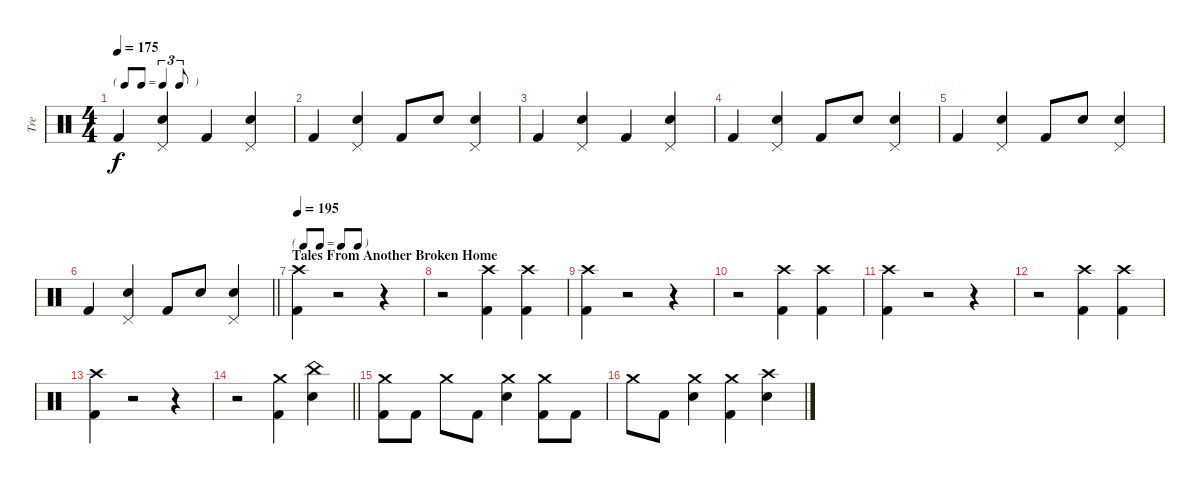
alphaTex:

\track ("Tre" "Tre") {instrument percussion}
\staff {score}
\articulation defaults
\ts (4 4)
\tf triplet8th
\tempo 175
\clef neutral
\ks c "Kick (hit) 2".4{dy f}
("Snare (hit) 2" "Pedal Hi-Hat (hit)").4 "Kick (hit) 2".4 ("Snare (hit) 2" "Pedal Hi-Hat (hit)").4 |
"Kick (hit) 2".4 ("Snare (hit) 2" "Pedal Hi-Hat (hit)").4 "Kick (hit) 2".8 "Snare (hit) 2".8 ("Snare (hit) 2" "Pedal Hi-Hat (hit)").4 |
"Kick (hit) 2".4 ("Snare (hit) 2" "Pedal Hi-Hat (hit)").4 "Kick (hit) 2".4 ("Snare (hit) 2" "Pedal Hi-Hat (hit)").4 |
"Kick (hit) 2".4 ("Snare (hit) 2" "Pedal Hi-Hat (hit)").4 "Kick (hit) 2".8 "Snare (hit) 2".8 ("Snare (hit) 2" "Pedal Hi-Hat (hit)").4 |
"Kick (hit) 2".4 ("Snare (hit) 2" "Pedal Hi-Hat (hit)").4 "Kick (hit) 2".8 "Snare (hit) 2".8 ("Snare (hit) 2" "Pedal Hi-Hat (hit)").4 |
\barLineRight lightlight "Kick (hit) 2".4
("Snare (hit) 2" "Pedal Hi-Hat (hit)").4 "Kick (hit) 2".8 "Snare (hit) 2".8 ("Snare (hit) 2" "Pedal Hi-Hat (hit)").4 |
\tf none
\section ("" "Tales From Another Broken Home")
\tempo 195
("Crash high (hit)" "Kick (hit) 2").4 r.2 r.4 |
r.2 ("Crash high (hit)" "Kick (hit) 2").4 ("Crash high (hit)" "Kick (hit) 2").4 |
("Crash high (hit)" "Kick (hit) 2").4 r.2 r.4 |
r.2 ("Crash high (hit)" "Kick (hit) 2").4 ("Crash high (hit)" "Kick (hit) 2").4 |
("Crash high (hit)" "Kick (hit) 2").4 r.2 r.4 |
r.2 ("Crash high (hit)" "Kick (hit) 2").4 ("Crash high (hit)" "Kick (hit) 2").4 |
("Crash high (hit)" "Kick (hit) 2").4 r.2 r.4 |
\barLineRight lightlight
r.2 ("Crash medium (hit)" "Kick (hit) 2").4 ("China (hit)" "Snare (hit) 2").4 |
("Crash medium (hit)" "Kick (hit) 2").8 "Kick (hit) 2".8 "Crash medium (hit)".8 "Kick (hit) 2".8 ("Crash medium (hit)" "Snare (hit) 2").4 ("Crash medium (hit)" "Kick (hit) 2").8 "Kick (hit) 2".8 |
"Crash medium (hit)".8 "Kick (hit) 2".8 ("Crash medium (hit)" "Snare (hit) 2").4 ("Crash medium (hit)" "Kick (hit) 2").4 ("Crash high (hit)" "Snare (hit) 2").4
